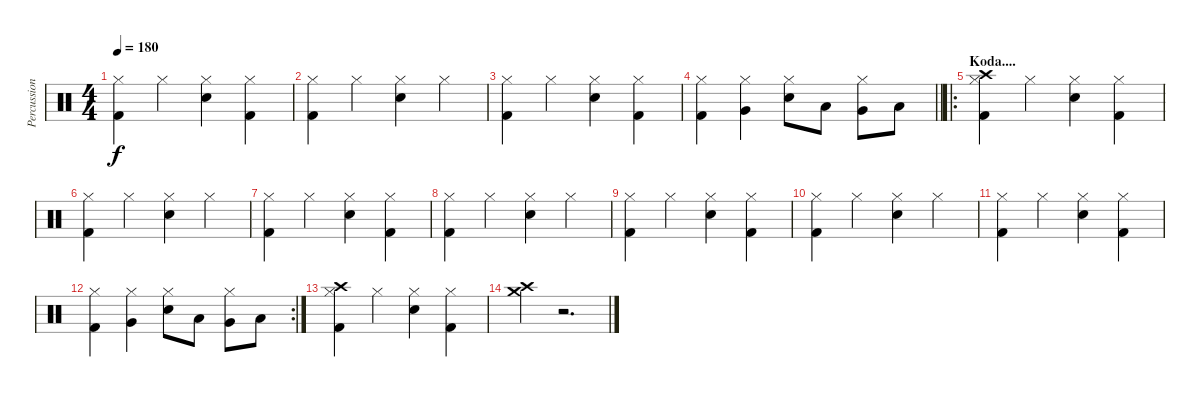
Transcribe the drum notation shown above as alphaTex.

\track ("Percussion" "Percussion") {instrument percussion}
\staff {score}
\articulation defaults
\ts (4 4)
\tempo 180
\clef neutral
\ks c
("Kick (hit) 2" "Hi-Hat (closed)").4{dy f} "Hi-Hat (closed)".4 ("Snare (hit) 2" "Hi-Hat (closed)").4 ("Kick (hit) 2" "Hi-Hat (closed)").4 |
("Kick (hit) 2" "Hi-Hat (closed)").4 "Hi-Hat (closed)".4 ("Snare (hit) 2" "Hi-Hat (closed)").4 "Hi-Hat (closed)".4 |
("Kick (hit) 2" "Hi-Hat (closed)").4 "Hi-Hat (closed)".4 ("Snare (hit) 2" "Hi-Hat (closed)").4 ("Kick (hit) 2" "Hi-Hat (closed)").4 |
\barLineRight lightlight
("Kick (hit) 2" "Hi-Hat (closed)").4 ("Very Low Tom (hit)" "Hi-Hat (closed)").4 ("Snare (hit) 2" "Hi-Hat (closed)").8 "Low Tom (hit)".8 ("Very Low Tom (hit)" "Hi-Hat (closed)").8 "Low Floor Tom (hit)".8 |
\ro
\section ("" "Koda....")
("Kick (hit) 2" "Crash high (hit)" "Hi-Hat (closed)").4 "Hi-Hat (closed)".4 ("Snare (hit) 2" "Hi-Hat (closed)").4 ("Kick (hit) 2" "Hi-Hat (closed)").4 |
("Kick (hit) 2" "Hi-Hat (closed)").4 "Hi-Hat (closed)".4 ("Snare (hit) 2" "Hi-Hat (closed)").4 "Hi-Hat (closed)".4 |
("Kick (hit) 2" "Hi-Hat (closed)").4 "Hi-Hat (closed)".4 ("Snare (hit) 2" "Hi-Hat (closed)").4 ("Kick (hit) 2" "Hi-Hat (closed)").4 |
("Kick (hit) 2" "Hi-Hat (closed)").4 "Hi-Hat (closed)".4 ("Snare (hit) 2" "Hi-Hat (closed)").4 "Hi-Hat (closed)".4 |
("Kick (hit) 2" "Hi-Hat (closed)").4 "Hi-Hat (closed)".4 ("Snare (hit) 2" "Hi-Hat (closed)").4 ("Kick (hit) 2" "Hi-Hat (closed)").4 |
("Kick (hit) 2" "Hi-Hat (closed)").4 "Hi-Hat (closed)".4 ("Snare (hit) 2" "Hi-Hat (closed)").4 "Hi-Hat (closed)".4 |
("Kick (hit) 2" "Hi-Hat (closed)").4 "Hi-Hat (closed)".4 ("Snare (hit) 2" "Hi-Hat (closed)").4 ("Kick (hit) 2" "Hi-Hat (closed)").4 |
\rc 2
("Kick (hit) 2" "Hi-Hat (closed)").4 ("Very Low Tom (hit)" "Hi-Hat (closed)").4 ("Snare (hit) 2" "Hi-Hat (closed)").8 "Low Tom (hit)".8 ("Very Low Tom (hit)" "Hi-Hat (closed)").8 "Low Floor Tom (hit)".8 |
("Kick (hit) 2" "Crash high (hit)" "Hi-Hat (closed)").4 "Hi-Hat (closed)".4 ("Snare (hit) 2" "Hi-Hat (closed)").4 ("Kick (hit) 2" "Hi-Hat (closed)").4 |
("Crash medium (hit)" "Crash high (hit)").4 r.2{d}
